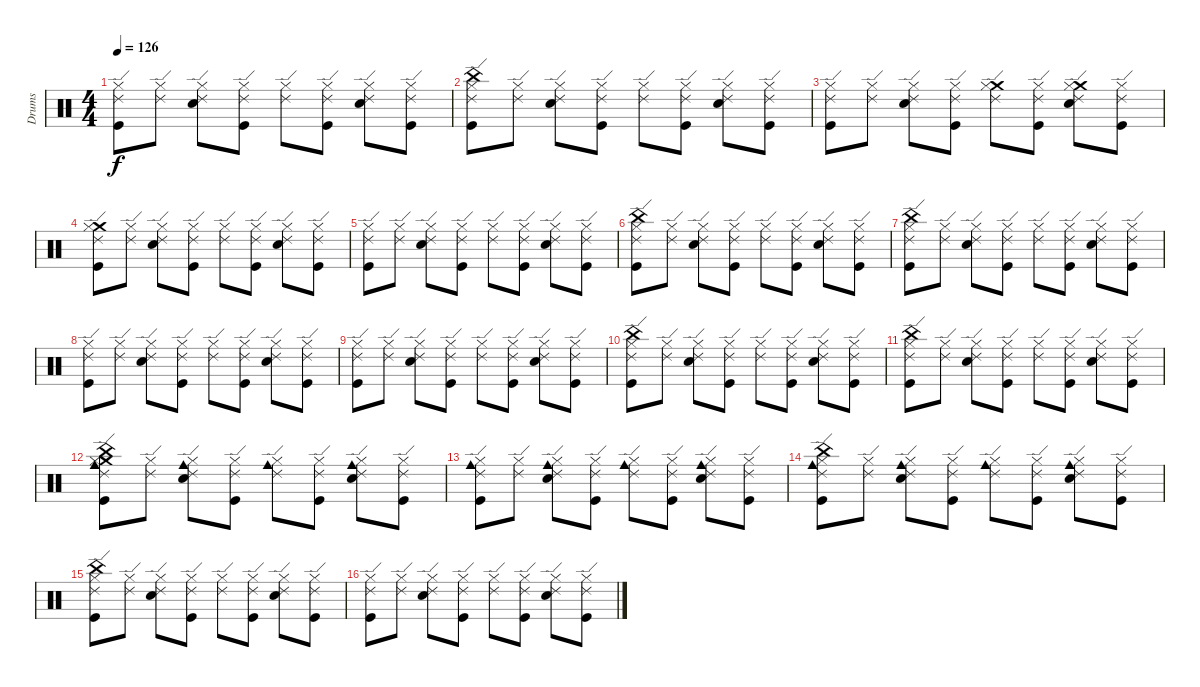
\track ("Drums" "Drums") {instrument percussion}
\staff {score}
\articulation defaults
\ts (4 4)
\tempo 126
\clef neutral
\ks c
("Hi-Hat (closed)" "Ride (edge) 2" "Kick (hit)").8{dy f} ("Hi-Hat (closed)" "Ride (edge) 2").8 ("Hi-Hat (closed)" "Ride (edge) 2" "Electric Snare (hit)").8 ("Hi-Hat (closed)" "Ride (edge) 2" "Kick (hit)").8 ("Hi-Hat (closed)" "Ride (edge) 2").8 ("Hi-Hat (closed)" "Ride (edge) 2" "Kick (hit)").8 ("Hi-Hat (closed)" "Ride (edge) 2" "Electric Snare (hit)").8 ("Hi-Hat (closed)" "Ride (edge) 2" "Kick (hit)").8 |
("Hi-Hat (closed)" "China (hit)" "Ride (edge) 2" "Kick (hit)").8 ("Hi-Hat (closed)" "Ride (edge) 2").8 ("Hi-Hat (closed)" "Ride (edge) 2" "Electric Snare (hit)").8 ("Hi-Hat (closed)" "Ride (edge) 2" "Kick (hit)").8 ("Hi-Hat (closed)" "Ride (edge) 2").8 ("Hi-Hat (closed)" "Ride (edge) 2" "Kick (hit)").8 ("Hi-Hat (closed)" "Ride (edge) 2" "Electric Snare (hit)").8 ("Hi-Hat (closed)" "Ride (edge) 2" "Kick (hit)").8 |
("Hi-Hat (closed)" "Ride (edge) 2" "Kick (hit)").8 ("Hi-Hat (closed)" "Ride (edge) 2").8 ("Hi-Hat (closed)" "Ride (edge) 2" "Electric Snare (hit)").8 ("Hi-Hat (closed)" "Ride (edge) 2" "Kick (hit)").8 ("Crash medium (hit)" "Hi-Hat (closed)" "Ride (edge) 2").8 ("Hi-Hat (closed)" "Ride (edge) 2" "Kick (hit)").8 ("Crash medium (hit)" "Hi-Hat (closed)" "Ride (edge) 2" "Electric Snare (hit)").8 ("Hi-Hat (closed)" "Ride (edge) 2" "Kick (hit)").8 |
("Crash medium (hit)" "Hi-Hat (closed)" "Ride (edge) 2" "Kick (hit)").8 ("Hi-Hat (closed)" "Ride (edge) 2").8 ("Hi-Hat (closed)" "Ride (edge) 2" "Electric Snare (hit)").8 ("Hi-Hat (closed)" "Ride (edge) 2" "Kick (hit)").8 ("Hi-Hat (closed)" "Ride (edge) 2").8 ("Hi-Hat (closed)" "Ride (edge) 2" "Kick (hit)").8 ("Hi-Hat (closed)" "Ride (edge) 2" "Electric Snare (hit)").8 ("Hi-Hat (closed)" "Ride (edge) 2" "Kick (hit)").8 |
("Hi-Hat (closed)" "Ride (edge) 2" "Kick (hit)").8 ("Hi-Hat (closed)" "Ride (edge) 2").8 ("Hi-Hat (closed)" "Ride (edge) 2" "Electric Snare (hit)").8 ("Hi-Hat (closed)" "Ride (edge) 2" "Kick (hit)").8 ("Hi-Hat (closed)" "Ride (edge) 2").8 ("Hi-Hat (closed)" "Ride (edge) 2" "Kick (hit)").8 ("Hi-Hat (closed)" "Ride (edge) 2" "Electric Snare (hit)").8 ("Hi-Hat (closed)" "Ride (edge) 2" "Kick (hit)").8 |
("Hi-Hat (closed)" "China (hit)" "Ride (edge) 2" "Kick (hit)").8 ("Hi-Hat (closed)" "Ride (edge) 2").8 ("Hi-Hat (closed)" "Ride (edge) 2" "Electric Snare (hit)").8 ("Hi-Hat (closed)" "Ride (edge) 2" "Kick (hit)").8 ("Hi-Hat (closed)" "Ride (edge) 2").8 ("Hi-Hat (closed)" "Ride (edge) 2" "Kick (hit)").8 ("Hi-Hat (closed)" "Ride (edge) 2" "Electric Snare (hit)").8 ("Hi-Hat (closed)" "Ride (edge) 2" "Kick (hit)").8 |
("Hi-Hat (closed)" "China (hit)" "Ride (edge) 2" "Kick (hit)").8 ("Hi-Hat (closed)" "Ride (edge) 2").8 ("Hi-Hat (closed)" "Ride (edge) 2" "Electric Snare (hit)").8 ("Hi-Hat (closed)" "Ride (edge) 2" "Kick (hit)").8 ("Hi-Hat (closed)" "Ride (edge) 2").8 ("Hi-Hat (closed)" "Ride (edge) 2" "Kick (hit)").8 ("Hi-Hat (closed)" "Ride (edge) 2" "Electric Snare (hit)").8 ("Hi-Hat (closed)" "Ride (edge) 2" "Kick (hit)").8 |
("Hi-Hat (closed)" "Ride (edge) 2" "Kick (hit)").8 ("Hi-Hat (closed)" "Ride (edge) 2").8 ("Hi-Hat (closed)" "Ride (edge) 2" "Electric Snare (hit)").8 ("Hi-Hat (closed)" "Ride (edge) 2" "Kick (hit)").8 ("Hi-Hat (closed)" "Ride (edge) 2").8 ("Hi-Hat (closed)" "Ride (edge) 2" "Kick (hit)").8 ("Hi-Hat (closed)" "Ride (edge) 2" "Electric Snare (hit)").8 ("Hi-Hat (closed)" "Ride (edge) 2" "Kick (hit)").8 |
("Hi-Hat (closed)" "Ride (edge) 2" "Kick (hit)").8 ("Hi-Hat (closed)" "Ride (edge) 2").8 ("Hi-Hat (closed)" "Ride (edge) 2" "Electric Snare (hit)").8 ("Hi-Hat (closed)" "Ride (edge) 2" "Kick (hit)").8 ("Hi-Hat (closed)" "Ride (edge) 2").8 ("Hi-Hat (closed)" "Ride (edge) 2" "Kick (hit)").8 ("Hi-Hat (closed)" "Ride (edge) 2" "Electric Snare (hit)").8 ("Hi-Hat (closed)" "Ride (edge) 2" "Kick (hit)").8 |
("Hi-Hat (closed)" "China (hit)" "Ride (edge) 2" "Kick (hit)").8 ("Hi-Hat (closed)" "Ride (edge) 2").8 ("Hi-Hat (closed)" "Ride (edge) 2" "Electric Snare (hit)").8 ("Hi-Hat (closed)" "Ride (edge) 2" "Kick (hit)").8 ("Hi-Hat (closed)" "Ride (edge) 2").8 ("Hi-Hat (closed)" "Ride (edge) 2" "Kick (hit)").8 ("Hi-Hat (closed)" "Ride (edge) 2" "Electric Snare (hit)").8 ("Hi-Hat (closed)" "Ride (edge) 2" "Kick (hit)").8 |
("Hi-Hat (closed)" "China (hit)" "Ride (edge) 2" "Kick (hit)").8 ("Hi-Hat (closed)" "Ride (edge) 2").8 ("Hi-Hat (closed)" "Ride (edge) 2" "Electric Snare (hit)").8 ("Hi-Hat (closed)" "Ride (edge) 2" "Kick (hit)").8 ("Hi-Hat (closed)" "Ride (edge) 2").8 ("Hi-Hat (closed)" "Ride (edge) 2" "Kick (hit)").8 ("Hi-Hat (closed)" "Ride (edge) 2" "Electric Snare (hit)").8 ("Hi-Hat (closed)" "Ride (edge) 2" "Kick (hit)").8 |
("Cowbell medium (hit)" "Crash medium (hit)" "China (hit)" "Hi-Hat (closed)" "Ride (edge) 2" "Kick (hit)").8 ("Hi-Hat (closed)" "Ride (edge) 2").8 ("Cowbell medium (hit)" "Hi-Hat (closed)" "Ride (edge) 2" "Electric Snare (hit)").8 ("Hi-Hat (closed)" "Ride (edge) 2" "Kick (hit)").8 ("Cowbell medium (hit)" "Hi-Hat (closed)" "Ride (edge) 2").8 ("Hi-Hat (closed)" "Ride (edge) 2" "Kick (hit)").8 ("Cowbell medium (hit)" "Hi-Hat (closed)" "Ride (edge) 2" "Electric Snare (hit)").8 ("Hi-Hat (closed)" "Ride (edge) 2" "Kick (hit)").8 |
("Cowbell medium (hit)" "Hi-Hat (closed)" "Ride (edge) 2" "Kick (hit)").8 ("Hi-Hat (closed)" "Ride (edge) 2").8 ("Cowbell medium (hit)" "Hi-Hat (closed)" "Ride (edge) 2" "Electric Snare (hit)").8 ("Hi-Hat (closed)" "Ride (edge) 2" "Kick (hit)").8 ("Cowbell medium (hit)" "Hi-Hat (closed)" "Ride (edge) 2").8 ("Hi-Hat (closed)" "Ride (edge) 2" "Kick (hit)").8 ("Cowbell medium (hit)" "Hi-Hat (closed)" "Ride (edge) 2" "Electric Snare (hit)").8 ("Hi-Hat (closed)" "Ride (edge) 2" "Kick (hit)").8 |
("Cowbell medium (hit)" "Hi-Hat (closed)" "China (hit)" "Ride (edge) 2" "Kick (hit)").8 ("Hi-Hat (closed)" "Ride (edge) 2").8 ("Cowbell medium (hit)" "Hi-Hat (closed)" "Ride (edge) 2" "Electric Snare (hit)").8 ("Hi-Hat (closed)" "Ride (edge) 2" "Kick (hit)").8 ("Cowbell medium (hit)" "Hi-Hat (closed)" "Ride (edge) 2").8 ("Hi-Hat (closed)" "Ride (edge) 2" "Kick (hit)").8 ("Cowbell medium (hit)" "Hi-Hat (closed)" "Ride (edge) 2" "Electric Snare (hit)").8 ("Hi-Hat (closed)" "Ride (edge) 2" "Kick (hit)").8 |
("Hi-Hat (closed)" "China (hit)" "Ride (edge) 2" "Kick (hit)").8 ("Hi-Hat (closed)" "Ride (edge) 2").8 ("Hi-Hat (closed)" "Ride (edge) 2" "Electric Snare (hit)").8 ("Hi-Hat (closed)" "Ride (edge) 2" "Kick (hit)").8 ("Hi-Hat (closed)" "Ride (edge) 2").8 ("Hi-Hat (closed)" "Ride (edge) 2" "Kick (hit)").8 ("Hi-Hat (closed)" "Ride (edge) 2" "Electric Snare (hit)").8 ("Hi-Hat (closed)" "Ride (edge) 2" "Kick (hit)").8 |
("Hi-Hat (closed)" "Ride (edge) 2" "Kick (hit)").8 ("Hi-Hat (closed)" "Ride (edge) 2").8 ("Hi-Hat (closed)" "Ride (edge) 2" "Electric Snare (hit)").8 ("Hi-Hat (closed)" "Ride (edge) 2" "Kick (hit)").8 ("Hi-Hat (closed)" "Ride (edge) 2").8 ("Hi-Hat (closed)" "Ride (edge) 2" "Kick (hit)").8 ("Hi-Hat (closed)" "Ride (edge) 2" "Electric Snare (hit)").8 ("Hi-Hat (closed)" "Ride (edge) 2" "Kick (hit)").8
